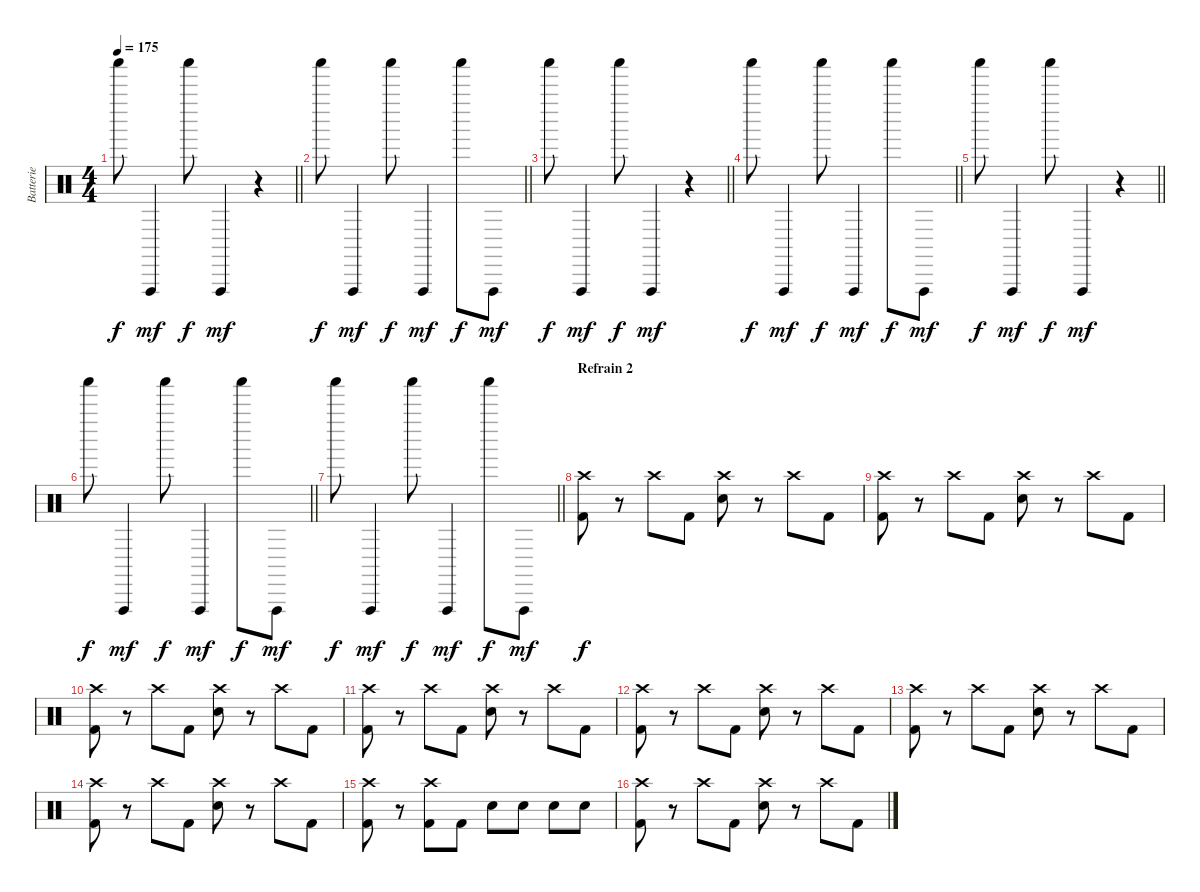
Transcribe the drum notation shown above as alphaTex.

\track ("Batterie" "Batterie") {instrument percussion}
\staff {score}
\articulation defaults
\ts (4 4)
\tempo 175
\clef neutral
\barLineRight lightlight
\ks c "Shaker (hit)".8{dy f} "Vibraslap (hit)".4{dy mf} "Shaker (hit)".8{dy f} "Vibraslap (hit)".4{dy mf}
r.4 |
\barLineRight lightlight "Shaker (hit)".8{dy f} "Vibraslap (hit)".4{dy mf} "Shaker (hit)".8{dy f} "Vibraslap (hit)".4{dy mf} "Shaker (hit)".8{dy f} "Vibraslap (hit)".8{dy mf}
|
\barLineRight lightlight "Shaker (hit)".8{dy f} "Vibraslap (hit)".4{dy mf} "Shaker (hit)".8{dy f} "Vibraslap (hit)".4{dy mf}
r.4 |
\barLineRight lightlight "Shaker (hit)".8{dy f} "Vibraslap (hit)".4{dy mf} "Shaker (hit)".8{dy f} "Vibraslap (hit)".4{dy mf} "Shaker (hit)".8{dy f} "Vibraslap (hit)".8{dy mf}
|
\barLineRight lightlight "Shaker (hit)".8{dy f} "Vibraslap (hit)".4{dy mf} "Shaker (hit)".8{dy f} "Vibraslap (hit)".4{dy mf}
r.4 |
\barLineRight lightlight "Shaker (hit)".8{dy f} "Vibraslap (hit)".4{dy mf} "Shaker (hit)".8{dy f} "Vibraslap (hit)".4{dy mf} "Shaker (hit)".8{dy f} "Vibraslap (hit)".8{dy mf}
|
\barLineRight lightlight "Shaker (hit)".8{dy f} "Vibraslap (hit)".4{dy mf} "Shaker (hit)".8{dy f} "Vibraslap (hit)".4{dy mf} "Shaker (hit)".8{dy f} "Vibraslap (hit)".8{dy mf}
|
\section ("" "Refrain 2")
("Kick (hit) 2" "Crash high (hit)").8{dy f} r.8 "Crash high (hit)".8 "Kick (hit) 2".8 ("Electric Snare (hit)" "Crash high (hit)").8 r.8 "Crash high (hit)".8 "Kick (hit) 2".8 |
("Kick (hit) 2" "Crash high (hit)").8 r.8 "Crash high (hit)".8 "Kick (hit) 2".8 ("Electric Snare (hit)" "Crash high (hit)").8 r.8 "Crash high (hit)".8 "Kick (hit) 2".8 |
("Kick (hit) 2" "Crash high (hit)").8 r.8 "Crash high (hit)".8 "Kick (hit) 2".8 ("Electric Snare (hit)" "Crash high (hit)").8 r.8 "Crash high (hit)".8 "Kick (hit) 2".8 |
("Kick (hit) 2" "Crash high (hit)").8 r.8 "Crash high (hit)".8 "Kick (hit) 2".8 ("Electric Snare (hit)" "Crash high (hit)").8 r.8 "Crash high (hit)".8 "Kick (hit) 2".8 |
("Kick (hit) 2" "Crash high (hit)").8 r.8 "Crash high (hit)".8 "Kick (hit) 2".8 ("Electric Snare (hit)" "Crash high (hit)").8 r.8 "Crash high (hit)".8 "Kick (hit) 2".8 |
("Kick (hit) 2" "Crash high (hit)").8 r.8 "Crash high (hit)".8 "Kick (hit) 2".8 ("Electric Snare (hit)" "Crash high (hit)").8 r.8 "Crash high (hit)".8 "Kick (hit) 2".8 |
("Kick (hit) 2" "Crash high (hit)").8 r.8 "Crash high (hit)".8 "Kick (hit) 2".8 ("Electric Snare (hit)" "Crash high (hit)").8 r.8 "Crash high (hit)".8 "Kick (hit) 2".8 |
("Kick (hit) 2" "Crash high (hit)").8 r.8 ("Kick (hit) 2" "Crash high (hit)").8 "Kick (hit) 2".8 "Electric Snare (hit)".8 "Electric Snare (hit)".8 "Electric Snare (hit)".8 "Electric Snare (hit)".8 |
("Kick (hit) 2" "Crash high (hit)").8 r.8 "Crash high (hit)".8 "Kick (hit) 2".8 ("Electric Snare (hit)" "Crash high (hit)").8 r.8 "Crash high (hit)".8 "Kick (hit) 2".8
